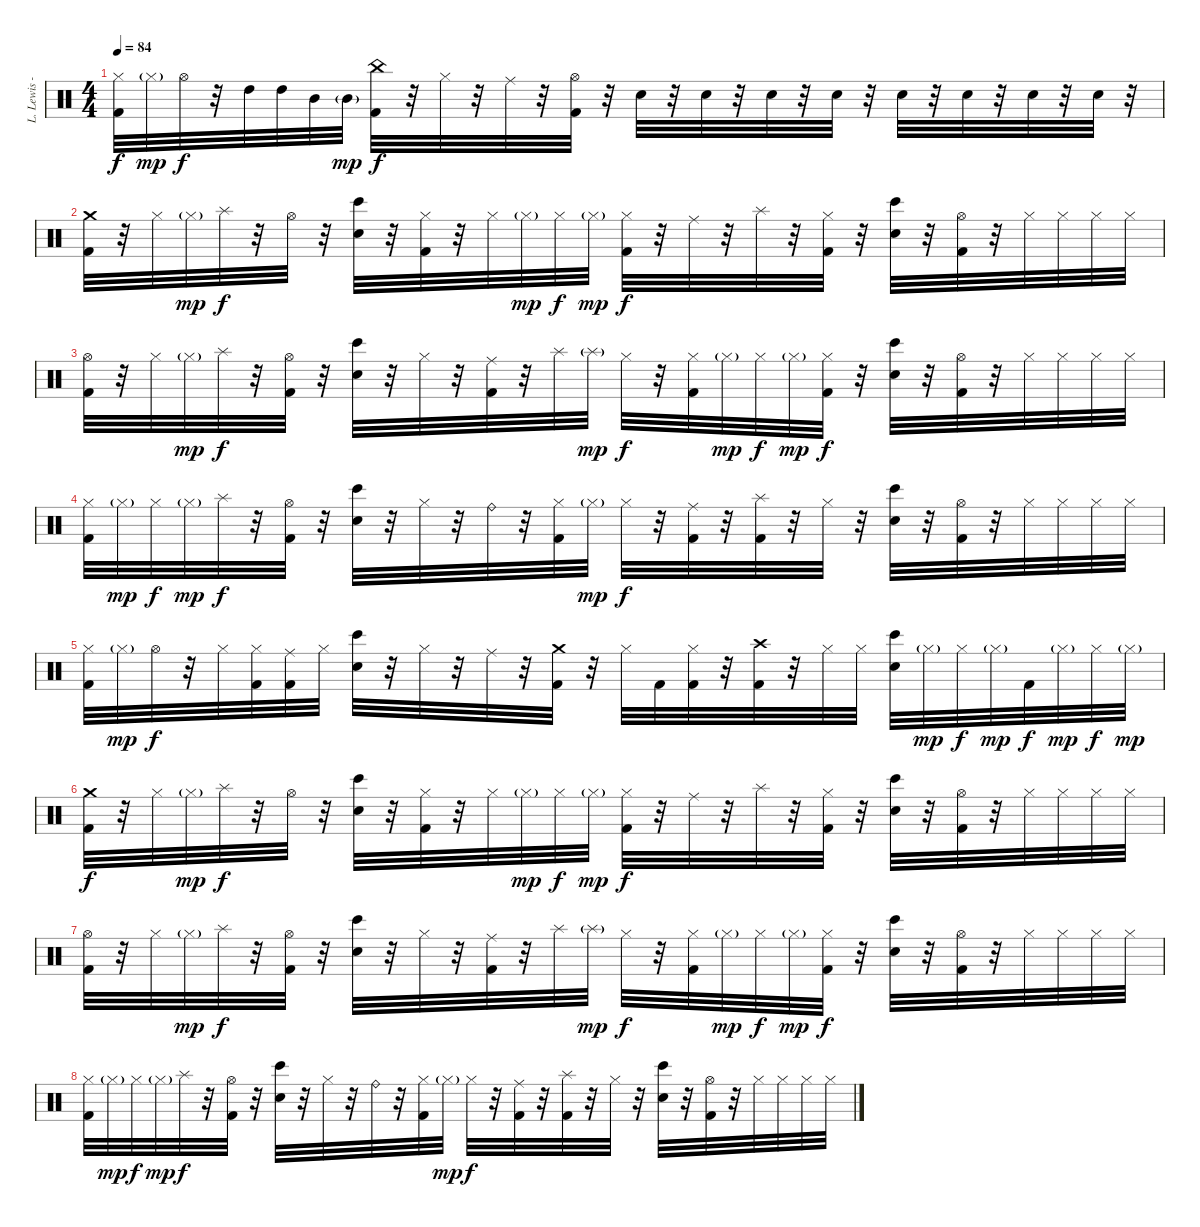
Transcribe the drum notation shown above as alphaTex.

\track ("L. Lewis - Drums" "L. Lewis -") {instrument percussion}
\staff {score}
\articulation defaults
\ts (4 4)
\tempo 84
\clef neutral
\ks c
("Hi-Hat (closed)" "Kick (hit) 2").32{dy f} "Hi-Hat (closed)"{g}.32{dy mp} "Hi-Hat (open)".32{dy f} r.32 "High Tom (hit)".32 "High Tom (hit)".32 "Mid Tom (hit)".32 "Mid Tom (hit)"{g}.32{dy mp} ("China (hit)" "Kick (hit) 2").32{dy f} r.32 "Hi-Hat (closed)".32 r.32 "Ride (middle)".32 r.32 ("Hi-Hat (open)" "Kick (hit) 2").32 r.32 "Electric Snare (hit)".32 r.32 "Electric Snare (hit)".32 r.32 "Electric Snare (hit)".32 r.32 "Electric Snare (hit)".32 r.32 "Electric Snare (hit)".32 r.32 "Electric Snare (hit)".32 r.32 "Electric Snare (hit)".32 r.32 "Electric Snare (hit)".32 r.32 |
("Crash medium (hit)" "Kick (hit) 2").32 r.32 "Hi-Hat (closed)".32 "Hi-Hat (closed)"{g}.32{dy mp} "Splash (hit)".32{dy f} r.32 "Hi-Hat (open)".32 r.32 ("Electric Snare (hit)" "Bongo High (hit)").32 r.32 ("Hi-Hat (closed)" "Kick (hit) 2").32 r.32 "Hi-Hat (closed)".32 "Hi-Hat (closed)"{g}.32{dy mp} "Hi-Hat (closed)".32{dy f} "Hi-Hat (closed)"{g}.32{dy mp} ("Hi-Hat (closed)" "Kick (hit) 2").32{dy f} r.32 "Ride (middle)".32 r.32 "Splash (hit)".32 r.32 ("Hi-Hat (closed)" "Kick (hit) 2").32 r.32 ("Electric Snare (hit)" "Bongo High (hit)").32 r.32 ("Hi-Hat (open)" "Kick (hit) 2").32 r.32 "Hi-Hat (closed)".32 "Hi-Hat (closed)".32 "Hi-Hat (closed)".32 "Hi-Hat (closed)".32 |
("Hi-Hat (open)" "Kick (hit) 2").32 r.32 "Hi-Hat (closed)".32 "Hi-Hat (closed)"{g}.32{dy mp} "Splash (hit)".32{dy f} r.32 ("Hi-Hat (open)" "Kick (hit) 2").32 r.32 ("Electric Snare (hit)" "Bongo High (hit)").32 r.32 "Hi-Hat (closed)".32 r.32 ("Ride (middle)" "Kick (hit) 2").32 r.32 "Splash (hit)".32 "Splash (hit)"{g}.32{dy mp} "Hi-Hat (closed)".32{dy f} r.32 ("Hi-Hat (closed)" "Kick (hit) 2").32 "Hi-Hat (closed)"{g}.32{dy mp} "Hi-Hat (closed)".32{dy f} "Hi-Hat (closed)"{g}.32{dy mp} ("Hi-Hat (closed)" "Kick (hit) 2").32{dy f} r.32 ("Electric Snare (hit)" "Bongo High (hit)").32 r.32 ("Hi-Hat (open)" "Kick (hit) 2").32 r.32 "Hi-Hat (closed)".32 "Hi-Hat (closed)".32 "Hi-Hat (closed)".32 "Hi-Hat (closed)".32 |
("Hi-Hat (closed)" "Kick (hit) 2").32 "Hi-Hat (closed)"{g}.32{dy mp} "Hi-Hat (closed)".32{dy f} "Hi-Hat (closed)"{g}.32{dy mp} "Splash (hit)".32{dy f} r.32 ("Hi-Hat (open)" "Kick (hit) 2").32 r.32 ("Electric Snare (hit)" "Bongo High (hit)").32 r.32 "Hi-Hat (closed)".32 r.32 "Ride (bell)".32 r.32 ("Hi-Hat (closed)" "Kick (hit) 2").32 "Hi-Hat (closed)"{g}.32{dy mp} "Hi-Hat (closed)".32{dy f} r.32 ("Ride (middle)" "Kick (hit) 2").32 r.32 ("Splash (hit)" "Kick (hit) 2").32 r.32 "Hi-Hat (closed)".32 r.32 ("Electric Snare (hit)" "Bongo High (hit)").32 r.32 ("Hi-Hat (open)" "Kick (hit) 2").32 r.32 "Hi-Hat (closed)".32 "Hi-Hat (closed)".32 "Hi-Hat (closed)".32 "Hi-Hat (closed)".32 |
("Hi-Hat (closed)" "Kick (hit) 2").32 "Hi-Hat (closed)"{g}.32{dy mp} "Hi-Hat (open)".32{dy f} r.32 "Hi-Hat (closed)".32 ("Hi-Hat (closed)" "Kick (hit) 2").32 ("Ride (middle)" "Kick (hit) 2").32 "Hi-Hat (closed)".32 ("Electric Snare (hit)" "Bongo High (hit)").32 r.32 "Hi-Hat (closed)".32 r.32 "Ride (middle)".32 r.32 ("Crash medium (hit)" "Kick (hit) 2").32 r.32 "Hi-Hat (closed)".32 "Kick (hit) 2".32 ("Hi-Hat (closed)" "Kick (hit) 2").32 r.32 ("Crash high (hit)" "Kick (hit) 2").32 r.32 "Hi-Hat (closed)".32 "Hi-Hat (closed)".32 ("Electric Snare (hit)" "Bongo High (hit)").32 "Hi-Hat (closed)"{g}.32{dy mp} "Hi-Hat (closed)".32{dy f} "Hi-Hat (closed)"{g}.32{dy mp} "Kick (hit) 2".32{dy f} "Hi-Hat (closed)"{g}.32{dy mp} "Hi-Hat (closed)".32{dy f} "Hi-Hat (closed)"{g}.32{dy mp} |
("Crash medium (hit)" "Kick (hit) 2").32{dy f} r.32 "Hi-Hat (closed)".32 "Hi-Hat (closed)"{g}.32{dy mp} "Splash (hit)".32{dy f} r.32 "Hi-Hat (open)".32 r.32 ("Electric Snare (hit)" "Bongo High (hit)").32 r.32 ("Hi-Hat (closed)" "Kick (hit) 2").32 r.32 "Hi-Hat (closed)".32 "Hi-Hat (closed)"{g}.32{dy mp} "Hi-Hat (closed)".32{dy f} "Hi-Hat (closed)"{g}.32{dy mp} ("Hi-Hat (closed)" "Kick (hit) 2").32{dy f} r.32 "Ride (middle)".32 r.32 "Splash (hit)".32 r.32 ("Hi-Hat (closed)" "Kick (hit) 2").32 r.32 ("Electric Snare (hit)" "Bongo High (hit)").32 r.32 ("Hi-Hat (open)" "Kick (hit) 2").32 r.32 "Hi-Hat (closed)".32 "Hi-Hat (closed)".32 "Hi-Hat (closed)".32 "Hi-Hat (closed)".32 |
("Hi-Hat (open)" "Kick (hit) 2").32 r.32 "Hi-Hat (closed)".32 "Hi-Hat (closed)"{g}.32{dy mp} "Splash (hit)".32{dy f} r.32 ("Hi-Hat (open)" "Kick (hit) 2").32 r.32 ("Electric Snare (hit)" "Bongo High (hit)").32 r.32 "Hi-Hat (closed)".32 r.32 ("Ride (middle)" "Kick (hit) 2").32 r.32 "Splash (hit)".32 "Splash (hit)"{g}.32{dy mp} "Hi-Hat (closed)".32{dy f} r.32 ("Hi-Hat (closed)" "Kick (hit) 2").32 "Hi-Hat (closed)"{g}.32{dy mp} "Hi-Hat (closed)".32{dy f} "Hi-Hat (closed)"{g}.32{dy mp} ("Hi-Hat (closed)" "Kick (hit) 2").32{dy f} r.32 ("Electric Snare (hit)" "Bongo High (hit)").32 r.32 ("Hi-Hat (open)" "Kick (hit) 2").32 r.32 "Hi-Hat (closed)".32 "Hi-Hat (closed)".32 "Hi-Hat (closed)".32 "Hi-Hat (closed)".32 |
("Hi-Hat (closed)" "Kick (hit) 2").32 "Hi-Hat (closed)"{g}.32{dy mp} "Hi-Hat (closed)".32{dy f} "Hi-Hat (closed)"{g}.32{dy mp} "Splash (hit)".32{dy f} r.32 ("Hi-Hat (open)" "Kick (hit) 2").32 r.32 ("Electric Snare (hit)" "Bongo High (hit)").32 r.32 "Hi-Hat (closed)".32 r.32 "Ride (bell)".32 r.32 ("Hi-Hat (closed)" "Kick (hit) 2").32 "Hi-Hat (closed)"{g}.32{dy mp} "Hi-Hat (closed)".32{dy f} r.32 ("Ride (middle)" "Kick (hit) 2").32 r.32 ("Splash (hit)" "Kick (hit) 2").32 r.32 "Hi-Hat (closed)".32 r.32 ("Electric Snare (hit)" "Bongo High (hit)").32 r.32 ("Hi-Hat (open)" "Kick (hit) 2").32 r.32 "Hi-Hat (closed)".32 "Hi-Hat (closed)".32 "Hi-Hat (closed)".32 "Hi-Hat (closed)".32
